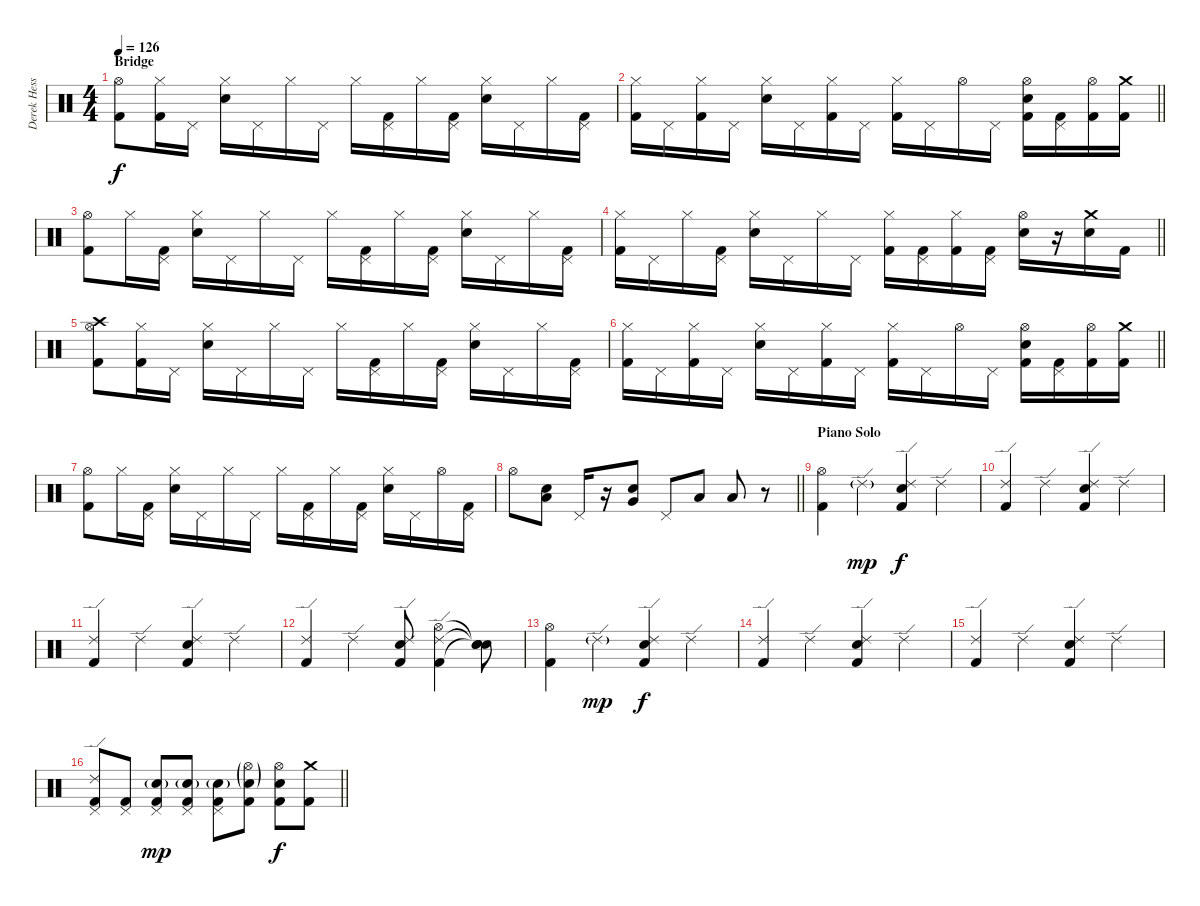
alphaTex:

\track ("Derek Hess (Drums and Percussion)" "Derek Hess") {instrument percussion}
\staff {score}
\articulation defaults
\ts (4 4)
\section ("" "Bridge")
\tempo 126
\clef neutral
\ks c
("Hi-Hat (open)" "Kick (hit) 2").8{dy f} ("Hi-Hat (closed)" "Kick (hit) 2").16 "Pedal Hi-Hat (hit)".16 ("Electric Snare (hit)" "Hi-Hat (closed)").16 "Pedal Hi-Hat (hit)".16 "Hi-Hat (closed)".16 "Pedal Hi-Hat (hit)".16 "Hi-Hat (closed)".16 ("Pedal Hi-Hat (hit)" "Kick (hit) 2").16 "Hi-Hat (closed)".16 ("Pedal Hi-Hat (hit)" "Kick (hit) 2").16 ("Electric Snare (hit)" "Hi-Hat (closed)").16 "Pedal Hi-Hat (hit)".16 "Hi-Hat (closed)".16 ("Pedal Hi-Hat (hit)" "Kick (hit) 2").16 |
\barLineRight lightlight
("Hi-Hat (closed)" "Kick (hit) 2").16 "Pedal Hi-Hat (hit)".16 ("Hi-Hat (closed)" "Kick (hit) 2").16 "Pedal Hi-Hat (hit)".16 ("Electric Snare (hit)" "Hi-Hat (closed)").16 "Pedal Hi-Hat (hit)".16 ("Hi-Hat (closed)" "Kick (hit) 2").16 "Pedal Hi-Hat (hit)".16 ("Hi-Hat (closed)" "Kick (hit) 2").16 "Pedal Hi-Hat (hit)".16 "Hi-Hat (open)".16 "Pedal Hi-Hat (hit)".16 ("Electric Snare (hit)" "Hi-Hat (open)" "Kick (hit) 2").16 ("Pedal Hi-Hat (hit)" "Kick (hit) 2").16 ("Hi-Hat (open)" "Kick (hit) 2").16 ("Crash medium (hit)" "Kick (hit) 2").16 |
("Hi-Hat (open)" "Kick (hit) 2").8 "Hi-Hat (closed)".16 ("Pedal Hi-Hat (hit)" "Kick (hit) 2").16 ("Electric Snare (hit)" "Hi-Hat (closed)").16 "Pedal Hi-Hat (hit)".16 "Hi-Hat (closed)".16 "Pedal Hi-Hat (hit)".16 "Hi-Hat (closed)".16 ("Pedal Hi-Hat (hit)" "Kick (hit) 2").16 "Hi-Hat (closed)".16 ("Pedal Hi-Hat (hit)" "Kick (hit) 2").16 ("Electric Snare (hit)" "Hi-Hat (closed)").16 "Pedal Hi-Hat (hit)".16 "Hi-Hat (closed)".16 ("Pedal Hi-Hat (hit)" "Kick (hit) 2").16 |
\barLineRight lightlight
("Hi-Hat (closed)" "Kick (hit) 2").16 "Pedal Hi-Hat (hit)".16 "Hi-Hat (closed)".16 ("Pedal Hi-Hat (hit)" "Kick (hit) 2").16 ("Electric Snare (hit)" "Hi-Hat (closed)").16 "Pedal Hi-Hat (hit)".16 "Hi-Hat (closed)".16 "Pedal Hi-Hat (hit)".16 ("Hi-Hat (closed)" "Kick (hit) 2").16 ("Pedal Hi-Hat (hit)" "Kick (hit) 2").16 ("Hi-Hat (closed)" "Kick (hit) 2").16 ("Pedal Hi-Hat (hit)" "Kick (hit) 2").16 ("Electric Snare (hit)" "Hi-Hat (open)").16 r.16 ("Crash medium (hit)" "Electric Snare (hit)").16 "Kick (hit) 2".16 |
("Crash high (hit)" "Hi-Hat (open)" "Kick (hit) 2").8 ("Hi-Hat (closed)" "Kick (hit) 2").16 "Pedal Hi-Hat (hit)".16 ("Electric Snare (hit)" "Hi-Hat (closed)").16 "Pedal Hi-Hat (hit)".16 "Hi-Hat (closed)".16 "Pedal Hi-Hat (hit)".16 "Hi-Hat (closed)".16 ("Pedal Hi-Hat (hit)" "Kick (hit) 2").16 "Hi-Hat (closed)".16 ("Pedal Hi-Hat (hit)" "Kick (hit) 2").16 ("Electric Snare (hit)" "Hi-Hat (closed)").16 "Pedal Hi-Hat (hit)".16 "Hi-Hat (closed)".16 ("Pedal Hi-Hat (hit)" "Kick (hit) 2").16 |
\barLineRight lightlight
("Hi-Hat (closed)" "Kick (hit) 2").16 "Pedal Hi-Hat (hit)".16 ("Hi-Hat (closed)" "Kick (hit) 2").16 "Pedal Hi-Hat (hit)".16 ("Electric Snare (hit)" "Hi-Hat (closed)").16 "Pedal Hi-Hat (hit)".16 ("Hi-Hat (closed)" "Kick (hit) 2").16 "Pedal Hi-Hat (hit)".16 ("Hi-Hat (closed)" "Kick (hit) 2").16 "Pedal Hi-Hat (hit)".16 "Hi-Hat (open)".16 "Pedal Hi-Hat (hit)".16 ("Electric Snare (hit)" "Hi-Hat (open)" "Kick (hit) 2").16 ("Pedal Hi-Hat (hit)" "Kick (hit) 2").16 ("Hi-Hat (open)" "Kick (hit) 2").16 ("Crash medium (hit)" "Kick (hit) 2").16 |
("Hi-Hat (open)" "Kick (hit) 2").8 "Hi-Hat (closed)".16 ("Pedal Hi-Hat (hit)" "Kick (hit) 2").16 ("Electric Snare (hit)" "Hi-Hat (closed)").16 "Pedal Hi-Hat (hit)".16 "Hi-Hat (closed)".16 "Pedal Hi-Hat (hit)".16 "Hi-Hat (closed)".16 ("Pedal Hi-Hat (hit)" "Kick (hit) 2").16 "Hi-Hat (closed)".16 ("Pedal Hi-Hat (hit)" "Kick (hit) 2").16 ("Electric Snare (hit)" "Hi-Hat (closed)").16 "Pedal Hi-Hat (hit)".16 "Hi-Hat (open)".16 ("Pedal Hi-Hat (hit)" "Kick (hit) 2").16 |
\barLineRight lightlight "Hi-Hat (open)".8
("Electric Snare (hit)" "Low Tom (hit)").8 "Pedal Hi-Hat (hit)".16 r.16 ("Electric Snare (hit)" "Very Low Tom (hit)").8 "Pedal Hi-Hat (hit)".8 "Low Floor Tom (hit)".8 "Low Floor Tom (hit)".8 r.8 |
\section ("" "Piano Solo")
("Hi-Hat (open)" "Kick (hit) 2").4 "Ride (edge) 2"{g}.4{dy mp} ("Ride (edge) 2" "Electric Snare (hit)" "Kick (hit) 2").4{dy f} "Ride (edge) 2".4 |
("Ride (edge) 2" "Kick (hit) 2").4 "Ride (edge) 2".4 ("Ride (edge) 2" "Electric Snare (hit)" "Kick (hit) 2").4 "Ride (edge) 2".4 |
("Ride (edge) 2" "Kick (hit) 2").4 "Ride (edge) 2".4 ("Ride (edge) 2" "Electric Snare (hit)" "Kick (hit) 2").4 "Ride (edge) 2".4 |
("Ride (edge) 2" "Kick (hit) 2").4 "Ride (edge) 2".4 ("Ride (edge) 2" "Electric Snare (hit)" "Kick (hit) 2").8 ("Ride (edge) 2" "Hi-Hat (open)" "Kick (hit) 2").4 ("Snare (hit)"{t} "Snare (hit)"{t} "Snare (hit)"{t}).8 |
("Hi-Hat (open)" "Kick (hit) 2").4 "Ride (edge) 2"{g}.4{dy mp} ("Ride (edge) 2" "Electric Snare (hit)" "Kick (hit) 2").4{dy f} "Ride (edge) 2".4 |
("Ride (edge) 2" "Kick (hit) 2").4 "Ride (edge) 2".4 ("Ride (edge) 2" "Electric Snare (hit)" "Kick (hit) 2").4 "Ride (edge) 2".4 |
("Ride (edge) 2" "Kick (hit) 2").4 "Ride (edge) 2".4 ("Ride (edge) 2" "Electric Snare (hit)" "Kick (hit) 2").4 "Ride (edge) 2".4 |
\barLineRight lightlight
("Ride (edge) 2" "Pedal Hi-Hat (hit)" "Kick (hit) 2").8 ("Pedal Hi-Hat (hit)" "Kick (hit) 2").8 ("Pedal Hi-Hat (hit)" "Electric Snare (hit)"{g} "Kick (hit) 2").8{dy mp} ("Pedal Hi-Hat (hit)" "Electric Snare (hit)"{g} "Kick (hit) 2").8 ("Pedal Hi-Hat (hit)" "Electric Snare (hit)"{g} "Kick (hit) 2").8 ("Hi-Hat (open)"{g} "Electric Snare (hit)"{g} "Kick (hit) 2").8 ("Hi-Hat (open)" "Electric Snare (hit)" "Kick (hit) 2").8{dy f} ("Crash medium (hit)" "Kick (hit) 2").8
